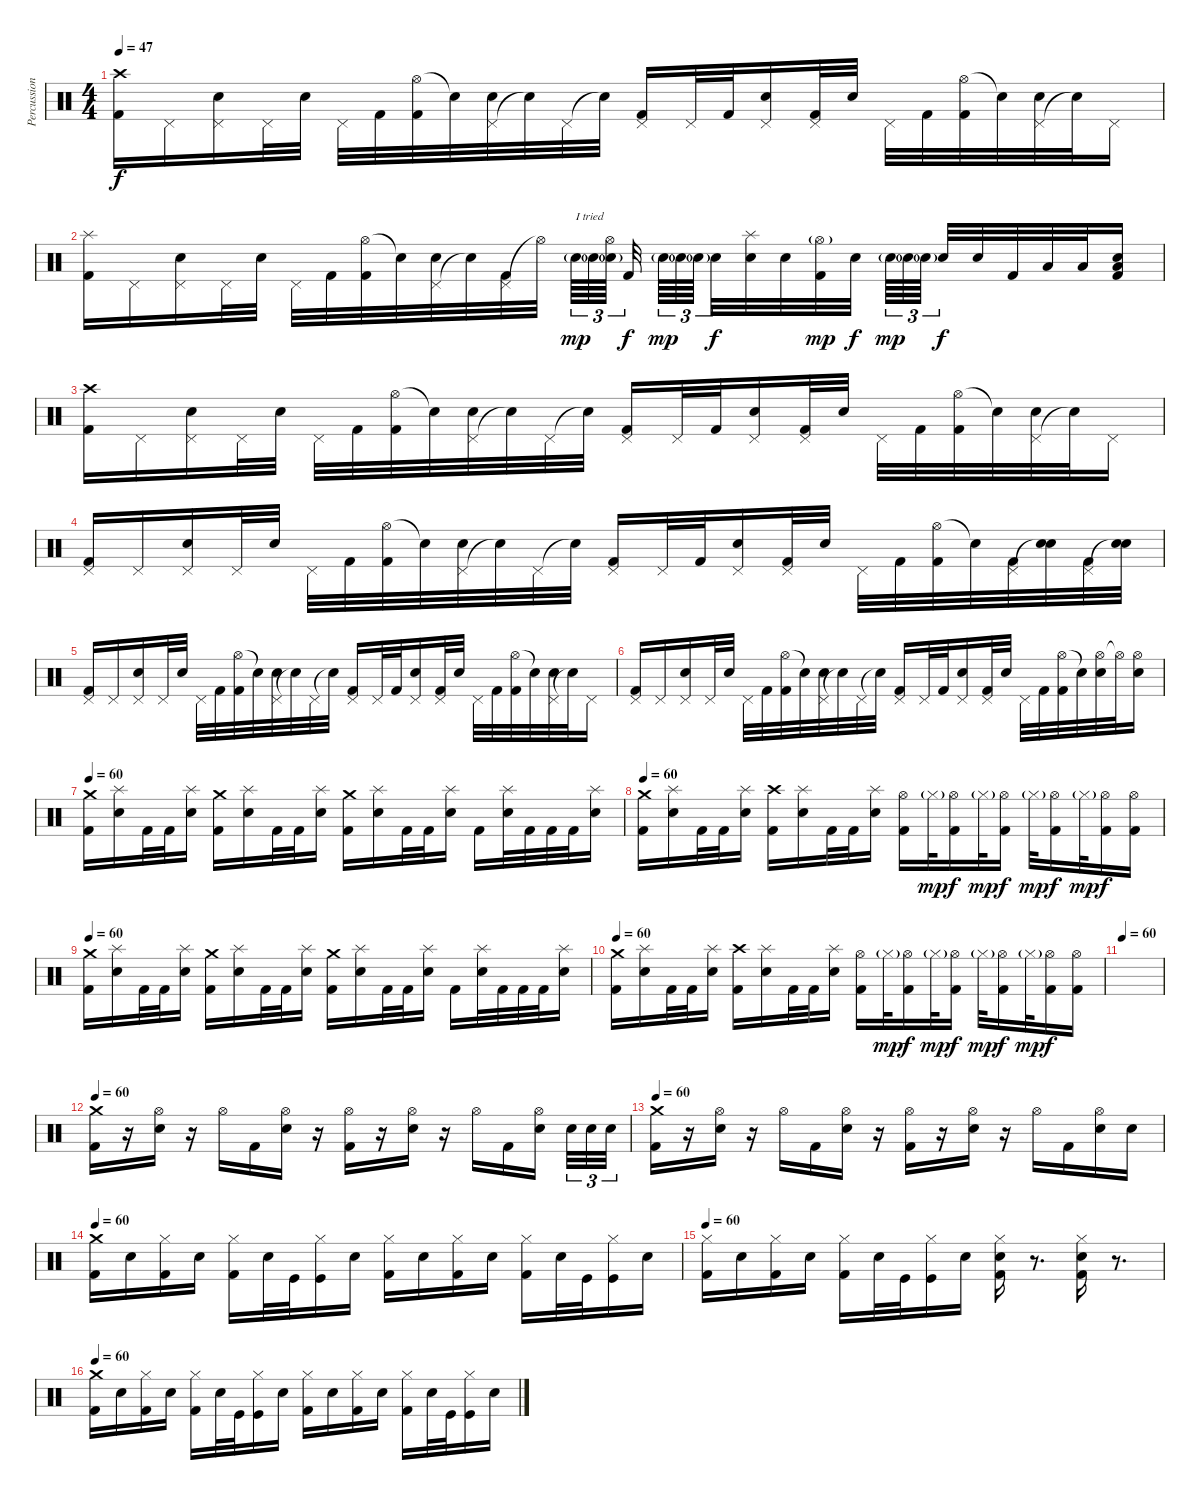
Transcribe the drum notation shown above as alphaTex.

\track ("Percussion" "Percussion") {instrument percussion}
\staff {score}
\articulation defaults
\ts (4 4)
\tempo 47
\clef neutral
\ks c
("Crash high (hit)" "Kick (hit) 2").16{dy f} "Pedal Hi-Hat (hit)".16 ("Pedal Hi-Hat (hit)" "Electric Snare (hit)").16 "Pedal Hi-Hat (hit)".32 "Electric Snare (hit)".32 "Pedal Hi-Hat (hit)".32 "Kick (hit) 2".32 ("Hi-Hat (open)" "Kick (hit) 2").32 "Snare (hit)"{t}.32 ("Pedal Hi-Hat (hit)" "Electric Snare (hit)").32 "Snare (hit)"{t}.32 "Pedal Hi-Hat (hit)".32 "Snare (hit)"{t}.32 ("Pedal Hi-Hat (hit)" "Kick (hit) 2").16 "Pedal Hi-Hat (hit)".32 "Kick (hit) 2".32 ("Pedal Hi-Hat (hit)" "Electric Snare (hit)").16 ("Pedal Hi-Hat (hit)" "Kick (hit) 2").32 "Electric Snare (hit)".32 "Pedal Hi-Hat (hit)".32 "Kick (hit) 2".32 ("Hi-Hat (open)" "Kick (hit) 2").32 "Snare (hit)"{t}.32 ("Pedal Hi-Hat (hit)" "Electric Snare (hit)").32 "Snare (hit)"{t}.32 "Pedal Hi-Hat (hit)".16 |
("Splash (hit)" "Kick (hit) 2").16 "Pedal Hi-Hat (hit)".16 ("Pedal Hi-Hat (hit)" "Electric Snare (hit)").16 "Pedal Hi-Hat (hit)".32 "Electric Snare (hit)".32 "Pedal Hi-Hat (hit)".32 "Kick (hit) 2".32 ("Hi-Hat (open)" "Kick (hit) 2").32 "Snare (hit)"{t}.32 ("Pedal Hi-Hat (hit)" "Electric Snare (hit)").32 "Snare (hit)"{t}.32 ("Pedal Hi-Hat (hit)" "Kick (hit) 2").32 "Hi-Hat (open)"{t}.32 "Electric Snare (hit)"{g}.64{tu (3 2) txt "I tried" dy mp} "Electric Snare (hit)"{g}.64{tu (3 2)} ("Hi-Hat (open)" "Electric Snare (hit)"{g}).64{tu (3 2)} "Kick (hit) 2".32{dy f} "Electric Snare (hit)"{g}.64{tu (3 2) dy mp} "Electric Snare (hit)"{g}.64{tu (3 2)} "Electric Snare (hit)"{g}.64{tu (3 2)} "Electric Snare (hit)".32{dy f} ("Splash (hit)" "Electric Snare (hit)").32 "Electric Snare (hit)".32 ("Hi-Hat (open)"{g} "Kick (hit) 2").32{dy mp} "Electric Snare (hit)".32{dy f} "Electric Snare (hit)"{g}.64{tu (3 2) dy mp} "Electric Snare (hit)"{g}.64{tu (3 2)} "Electric Snare (hit)"{g}.64{tu (3 2)} "Electric Snare (hit)".32{dy f} "Electric Snare (hit)".32 "Kick (hit) 2".32 "Low Tom (hit)".32 "Low Tom (hit)".32 ("Electric Snare (hit)" "Low Floor Tom (hit)" "Kick (hit) 2").16 |
("Crash high (hit)" "Kick (hit) 2").16 "Pedal Hi-Hat (hit)".16 ("Pedal Hi-Hat (hit)" "Electric Snare (hit)").16 "Pedal Hi-Hat (hit)".32 "Electric Snare (hit)".32 "Pedal Hi-Hat (hit)".32 "Kick (hit) 2".32 ("Hi-Hat (open)" "Kick (hit) 2").32 "Snare (hit)"{t}.32 ("Pedal Hi-Hat (hit)" "Electric Snare (hit)").32 "Snare (hit)"{t}.32 "Pedal Hi-Hat (hit)".32 "Snare (hit)"{t}.32 ("Pedal Hi-Hat (hit)" "Kick (hit) 2").16 "Pedal Hi-Hat (hit)".32 "Kick (hit) 2".32 ("Pedal Hi-Hat (hit)" "Electric Snare (hit)").16 ("Pedal Hi-Hat (hit)" "Kick (hit) 2").32 "Electric Snare (hit)".32 "Pedal Hi-Hat (hit)".32 "Kick (hit) 2".32 ("Hi-Hat (open)" "Kick (hit) 2").32 "Snare (hit)"{t}.32 ("Pedal Hi-Hat (hit)" "Electric Snare (hit)").32 "Snare (hit)"{t}.32 "Pedal Hi-Hat (hit)".16 |
("Pedal Hi-Hat (hit)" "Kick (hit) 2").16 "Pedal Hi-Hat (hit)".16 ("Pedal Hi-Hat (hit)" "Electric Snare (hit)").16 "Pedal Hi-Hat (hit)".32 "Electric Snare (hit)".32 "Pedal Hi-Hat (hit)".32 "Kick (hit) 2".32 ("Hi-Hat (open)" "Kick (hit) 2").32 "Snare (hit)"{t}.32 ("Pedal Hi-Hat (hit)" "Electric Snare (hit)").32 "Snare (hit)"{t}.32 "Pedal Hi-Hat (hit)".32 "Snare (hit)"{t}.32 ("Pedal Hi-Hat (hit)" "Kick (hit) 2").16 "Pedal Hi-Hat (hit)".32 "Kick (hit) 2".32 ("Pedal Hi-Hat (hit)" "Electric Snare (hit)").16 ("Pedal Hi-Hat (hit)" "Kick (hit) 2").32 "Electric Snare (hit)".32 "Pedal Hi-Hat (hit)".32 "Kick (hit) 2".32 ("Hi-Hat (open)" "Kick (hit) 2").32 "Snare (hit)"{t}.32 ("Pedal Hi-Hat (hit)" "Kick (hit) 2").32 ("Snare (hit)"{t} "Electric Snare (hit)").32 ("Pedal Hi-Hat (hit)" "Kick (hit) 2").32 ("Snare (hit)"{t} "Electric Snare (hit)").32 |
("Pedal Hi-Hat (hit)" "Kick (hit) 2").16 "Pedal Hi-Hat (hit)".16 ("Pedal Hi-Hat (hit)" "Electric Snare (hit)").16 "Pedal Hi-Hat (hit)".32 "Electric Snare (hit)".32 "Pedal Hi-Hat (hit)".32 "Kick (hit) 2".32 ("Hi-Hat (open)" "Kick (hit) 2").32 "Snare (hit)"{t}.32 ("Pedal Hi-Hat (hit)" "Electric Snare (hit)").32 "Snare (hit)"{t}.32 "Pedal Hi-Hat (hit)".32 "Snare (hit)"{t}.32 ("Pedal Hi-Hat (hit)" "Kick (hit) 2").16 "Pedal Hi-Hat (hit)".32 "Kick (hit) 2".32 ("Pedal Hi-Hat (hit)" "Electric Snare (hit)").16 ("Pedal Hi-Hat (hit)" "Kick (hit) 2").32 "Electric Snare (hit)".32 "Pedal Hi-Hat (hit)".32 "Kick (hit) 2".32 ("Hi-Hat (open)" "Kick (hit) 2").32 "Snare (hit)"{t}.32 ("Pedal Hi-Hat (hit)" "Electric Snare (hit)").32 "Snare (hit)"{t}.32 "Pedal Hi-Hat (hit)".16 |
("Pedal Hi-Hat (hit)" "Kick (hit) 2").16 "Pedal Hi-Hat (hit)".16 ("Pedal Hi-Hat (hit)" "Electric Snare (hit)").16 "Pedal Hi-Hat (hit)".32 "Electric Snare (hit)".32 "Pedal Hi-Hat (hit)".32 "Kick (hit) 2".32 ("Hi-Hat (open)" "Kick (hit) 2").32 "Snare (hit)"{t}.32 ("Pedal Hi-Hat (hit)" "Electric Snare (hit)").32 "Snare (hit)"{t}.32 "Pedal Hi-Hat (hit)".32 "Snare (hit)"{t}.32 ("Pedal Hi-Hat (hit)" "Kick (hit) 2").16 "Pedal Hi-Hat (hit)".32 "Kick (hit) 2".32 ("Pedal Hi-Hat (hit)" "Electric Snare (hit)").16 ("Pedal Hi-Hat (hit)" "Kick (hit) 2").32 "Electric Snare (hit)".32 "Pedal Hi-Hat (hit)".32 "Kick (hit) 2".32 ("Hi-Hat (open)" "Kick (hit) 2").32 "Snare (hit)"{t}.32 ("Hi-Hat (open)" "Electric Snare (hit)").32 "Hi-Hat (open)"{t}.32 ("Hi-Hat (open)" "Electric Snare (hit)").16 |
\tempo 60
("Crash medium (hit)" "Kick (hit) 2").16 ("Splash (hit)" "Electric Snare (hit)").16 "Kick (hit) 2".32 "Kick (hit) 2".32 ("Splash (hit)" "Electric Snare (hit)").16 ("Crash medium (hit)" "Kick (hit) 2").16 ("Splash (hit)" "Electric Snare (hit)").16 "Kick (hit) 2".32 "Kick (hit) 2".32 ("Splash (hit)" "Electric Snare (hit)").16 ("Crash medium (hit)" "Kick (hit) 2").16 ("Splash (hit)" "Electric Snare (hit)").16 "Kick (hit) 2".32 "Kick (hit) 2".32 ("Splash (hit)" "Electric Snare (hit)").16 "Kick (hit) 2".16 ("Splash (hit)" "Electric Snare (hit)").32 "Kick (hit) 2".32 "Kick (hit) 2".32 "Kick (hit) 2".32 ("Splash (hit)" "Electric Snare (hit)").16 |
\tempo 60
("Crash medium (hit)" "Kick (hit) 2").16 ("Splash (hit)" "Electric Snare (hit)").16 "Kick (hit) 2".32 "Kick (hit) 2".32 ("Splash (hit)" "Electric Snare (hit)").16 ("Crash high (hit)" "Kick (hit) 2").16 ("Splash (hit)" "Electric Snare (hit)").16 "Kick (hit) 2".32 "Kick (hit) 2".32 ("Splash (hit)" "Electric Snare (hit)").16 ("Hi-Hat (open)" "Kick (hit) 2").16 "Hi-Hat (closed)"{g}.32{dy mp} ("Hi-Hat (open)" "Kick (hit) 2").16{dy f} "Hi-Hat (closed)"{g}.32{dy mp} ("Hi-Hat (open)" "Kick (hit) 2").16{dy f} "Hi-Hat (closed)"{g}.32{dy mp} ("Hi-Hat (open)" "Kick (hit) 2").16{dy f} "Hi-Hat (closed)"{g}.32{dy mp} ("Hi-Hat (open)" "Kick (hit) 2").16{dy f} ("Hi-Hat (open)" "Kick (hit) 2").16 |
\tempo 60
("Crash medium (hit)" "Kick (hit) 2").16 ("Splash (hit)" "Electric Snare (hit)").16 "Kick (hit) 2".32 "Kick (hit) 2".32 ("Splash (hit)" "Electric Snare (hit)").16 ("Crash medium (hit)" "Kick (hit) 2").16 ("Splash (hit)" "Electric Snare (hit)").16 "Kick (hit) 2".32 "Kick (hit) 2".32 ("Splash (hit)" "Electric Snare (hit)").16 ("Crash medium (hit)" "Kick (hit) 2").16 ("Splash (hit)" "Electric Snare (hit)").16 "Kick (hit) 2".32 "Kick (hit) 2".32 ("Splash (hit)" "Electric Snare (hit)").16 "Kick (hit) 2".16 ("Splash (hit)" "Electric Snare (hit)").32 "Kick (hit) 2".32 "Kick (hit) 2".32 "Kick (hit) 2".32 ("Splash (hit)" "Electric Snare (hit)").16 |
\tempo 60
("Crash medium (hit)" "Kick (hit) 2").16 ("Splash (hit)" "Electric Snare (hit)").16 "Kick (hit) 2".32 "Kick (hit) 2".32 ("Splash (hit)" "Electric Snare (hit)").16 ("Crash high (hit)" "Kick (hit) 2").16 ("Splash (hit)" "Electric Snare (hit)").16 "Kick (hit) 2".32 "Kick (hit) 2".32 ("Splash (hit)" "Electric Snare (hit)").16 ("Hi-Hat (open)" "Kick (hit) 2").16 "Hi-Hat (closed)"{g}.32{dy mp} ("Hi-Hat (open)" "Kick (hit) 2").16{dy f} "Hi-Hat (closed)"{g}.32{dy mp} ("Hi-Hat (open)" "Kick (hit) 2").16{dy f} "Hi-Hat (closed)"{g}.32{dy mp} ("Hi-Hat (open)" "Kick (hit) 2").16{dy f} "Hi-Hat (closed)"{g}.32{dy mp} ("Hi-Hat (open)" "Kick (hit) 2").16{dy f} ("Hi-Hat (open)" "Kick (hit) 2").16 |
\tempo 60
|
\tempo 60
("Crash medium (hit)" "Kick (hit) 2").16 r.16 ("Hi-Hat (open)" "Electric Snare (hit)").16 r.16 "Hi-Hat (open)".16 "Kick (hit) 2".16 ("Hi-Hat (open)" "Electric Snare (hit)").16 r.16 ("Hi-Hat (open)" "Kick (hit) 2").16 r.16 ("Hi-Hat (open)" "Electric Snare (hit)").16 r.16 "Hi-Hat (open)".16 "Kick (hit) 2".16 ("Hi-Hat (open)" "Electric Snare (hit)").16 "Electric Snare (hit)".32{tu (3 2)} "Electric Snare (hit)".32{tu (3 2)} "Electric Snare (hit)".32{tu (3 2)} |
\tempo 60
("Crash medium (hit)" "Kick (hit) 2").16 r.16 ("Hi-Hat (open)" "Electric Snare (hit)").16 r.16 "Hi-Hat (open)".16 "Kick (hit) 2".16 ("Hi-Hat (open)" "Electric Snare (hit)").16 r.16 ("Hi-Hat (open)" "Kick (hit) 2").16 r.16 ("Hi-Hat (open)" "Electric Snare (hit)").16 r.16 "Hi-Hat (open)".16 "Kick (hit) 2".16 ("Hi-Hat (open)" "Electric Snare (hit)").16 "Electric Snare (hit)".16 |
\tempo 60
("Crash medium (hit)" "Kick (hit) 2").16 "Electric Snare (hit)".16 ("Hi-Hat (closed)" "Kick (hit) 2").16 "Electric Snare (hit)".16 ("Hi-Hat (closed)" "Kick (hit) 2").16 "Electric Snare (hit)".32 "Kick (hit)".32 ("Hi-Hat (closed)" "Kick (hit)").16 "Electric Snare (hit)".16 ("Hi-Hat (closed)" "Kick (hit) 2").16 "Electric Snare (hit)".16 ("Hi-Hat (closed)" "Kick (hit) 2").16 "Electric Snare (hit)".16 ("Hi-Hat (closed)" "Kick (hit) 2").16 "Electric Snare (hit)".32 "Kick (hit)".32 ("Hi-Hat (closed)" "Kick (hit)").16 "Electric Snare (hit)".16 |
\tempo 60
("Hi-Hat (closed)" "Kick (hit) 2").16 "Electric Snare (hit)".16 ("Hi-Hat (closed)" "Kick (hit) 2").16 "Electric Snare (hit)".16 ("Hi-Hat (closed)" "Kick (hit) 2").16 "Electric Snare (hit)".32 "Kick (hit)".32 ("Hi-Hat (closed)" "Kick (hit)").16 "Electric Snare (hit)".16 ("Hi-Hat (closed)" "Electric Snare (hit)" "Kick (hit) 2").16 r.8{d} ("Hi-Hat (closed)" "Electric Snare (hit)" "Kick (hit) 2").16 r.8{d} |
\tempo 60
("Crash medium (hit)" "Kick (hit) 2").16 "Electric Snare (hit)".16 ("Hi-Hat (closed)" "Kick (hit) 2").16 "Electric Snare (hit)".16 ("Hi-Hat (closed)" "Kick (hit) 2").16 "Electric Snare (hit)".32 "Kick (hit)".32 ("Hi-Hat (closed)" "Kick (hit)").16 "Electric Snare (hit)".16 ("Hi-Hat (closed)" "Kick (hit) 2").16 "Electric Snare (hit)".16 ("Hi-Hat (closed)" "Kick (hit) 2").16 "Electric Snare (hit)".16 ("Hi-Hat (closed)" "Kick (hit) 2").16 "Electric Snare (hit)".32 "Kick (hit)".32 ("Hi-Hat (closed)" "Kick (hit)").16 "Electric Snare (hit)".16
